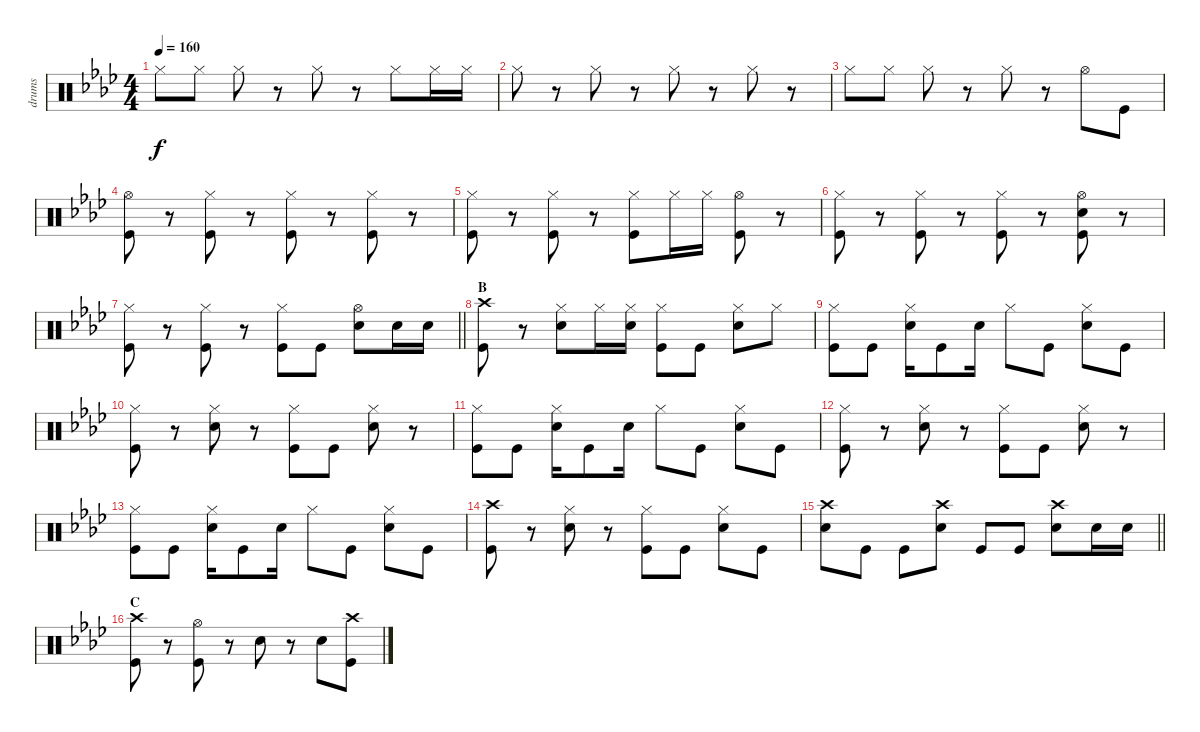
\track ("drums" "drums") {instrument percussion}
\staff {score}
\articulation defaults
\ts (4 4)
\tempo 160
\clef neutral
\ks ab "Hi-Hat (closed)".8{dy f} "Hi-Hat (closed)".8 "Hi-Hat (closed)".8
r.8 "Hi-Hat (closed)".8 r.8 "Hi-Hat (closed)".8 "Hi-Hat (closed)".16 "Hi-Hat (closed)".16 |
"Hi-Hat (closed)".8 r.8 "Hi-Hat (closed)".8 r.8 "Hi-Hat (closed)".8 r.8 "Hi-Hat (closed)".8 r.8 |
"Hi-Hat (closed)".8 "Hi-Hat (closed)".8 "Hi-Hat (closed)".8 r.8 "Hi-Hat (closed)".8 r.8 "Hi-Hat (open)".8 "Kick (hit)".8 |
("Hi-Hat (open)" "Kick (hit)").8 r.8 ("Hi-Hat (closed)" "Kick (hit)").8 r.8 ("Hi-Hat (closed)" "Kick (hit)").8 r.8 ("Hi-Hat (closed)" "Kick (hit)").8 r.8 |
("Hi-Hat (closed)" "Kick (hit)").8 r.8 ("Hi-Hat (closed)" "Kick (hit)").8 r.8 ("Hi-Hat (closed)" "Kick (hit)").8 "Hi-Hat (closed)".16 "Hi-Hat (closed)".16 ("Hi-Hat (open)" "Kick (hit)").8 r.8 |
("Hi-Hat (closed)" "Kick (hit)").8 r.8 ("Hi-Hat (closed)" "Kick (hit)").8 r.8 ("Hi-Hat (closed)" "Kick (hit)").8 r.8 ("Hi-Hat (open)" "Snare (hit) 2" "Kick (hit)").8 r.8 |
\barLineRight lightlight
("Hi-Hat (closed)" "Kick (hit)").8 r.8 ("Hi-Hat (closed)" "Kick (hit)").8 r.8 ("Hi-Hat (closed)" "Kick (hit)").8 "Kick (hit)".8 ("Hi-Hat (open)" "Snare (hit) 2").8 "Snare (hit) 2".16 "Snare (hit) 2".16 |
\section ("" "B")
("Crash high (hit)" "Kick (hit)").8 r.8 ("Hi-Hat (closed)" "Snare (hit) 2").8 "Hi-Hat (closed)".16 ("Hi-Hat (closed)" "Snare (hit) 2").16 ("Hi-Hat (closed)" "Kick (hit)").8 "Kick (hit)".8 ("Hi-Hat (closed)" "Snare (hit) 2").8 "Hi-Hat (closed)".8 |
("Hi-Hat (closed)" "Kick (hit)").8 "Kick (hit)".8 ("Hi-Hat (closed)" "Snare (hit) 2").16 "Kick (hit)".8 "Snare (hit) 2".16 "Hi-Hat (closed)".8 "Kick (hit)".8 ("Hi-Hat (closed)" "Snare (hit) 2").8 "Kick (hit)".8 |
("Hi-Hat (closed)" "Kick (hit)").8 r.8 ("Hi-Hat (closed)" "Snare (hit) 2").8 r.8 ("Hi-Hat (closed)" "Kick (hit)").8 "Kick (hit)".8 ("Hi-Hat (closed)" "Snare (hit) 2").8 r.8 |
("Hi-Hat (closed)" "Kick (hit)").8 "Kick (hit)".8 ("Hi-Hat (closed)" "Snare (hit) 2").16 "Kick (hit)".8 "Snare (hit) 2".16 "Hi-Hat (closed)".8 "Kick (hit)".8 ("Hi-Hat (closed)" "Snare (hit) 2").8 "Kick (hit)".8 |
("Hi-Hat (closed)" "Kick (hit)").8 r.8 ("Hi-Hat (closed)" "Snare (hit) 2").8 r.8 ("Hi-Hat (closed)" "Kick (hit)").8 "Kick (hit)".8 ("Hi-Hat (closed)" "Snare (hit) 2").8 r.8 |
("Hi-Hat (closed)" "Kick (hit)").8 "Kick (hit)".8 ("Hi-Hat (closed)" "Snare (hit) 2").16 "Kick (hit)".8 "Snare (hit) 2".16 "Hi-Hat (closed)".8 "Kick (hit)".8 ("Hi-Hat (closed)" "Snare (hit) 2").8 "Kick (hit)".8 |
("Crash high (hit)" "Kick (hit)").8 r.8 ("Hi-Hat (closed)" "Snare (hit) 2").8 r.8 ("Hi-Hat (closed)" "Kick (hit)").8 "Kick (hit)".8 ("Hi-Hat (closed)" "Snare (hit) 2").8 "Kick (hit)".8 |
\barLineRight lightlight
("Crash high (hit)" "Snare (hit) 2").8 "Kick (hit)".8 "Kick (hit)".8 ("Crash high (hit)" "Snare (hit) 2").8 "Kick (hit)".8 "Kick (hit)".8 ("Crash high (hit)" "Snare (hit) 2").8 "Snare (hit) 2".16 "Snare (hit) 2".16 |
\section ("" "C")
("Crash high (hit)" "Kick (hit)").8 r.8 ("Hi-Hat (open)" "Kick (hit)").8 r.8 "Snare (hit) 2".8 r.8 "Snare (hit) 2".8 ("Crash high (hit)" "Kick (hit)").8
